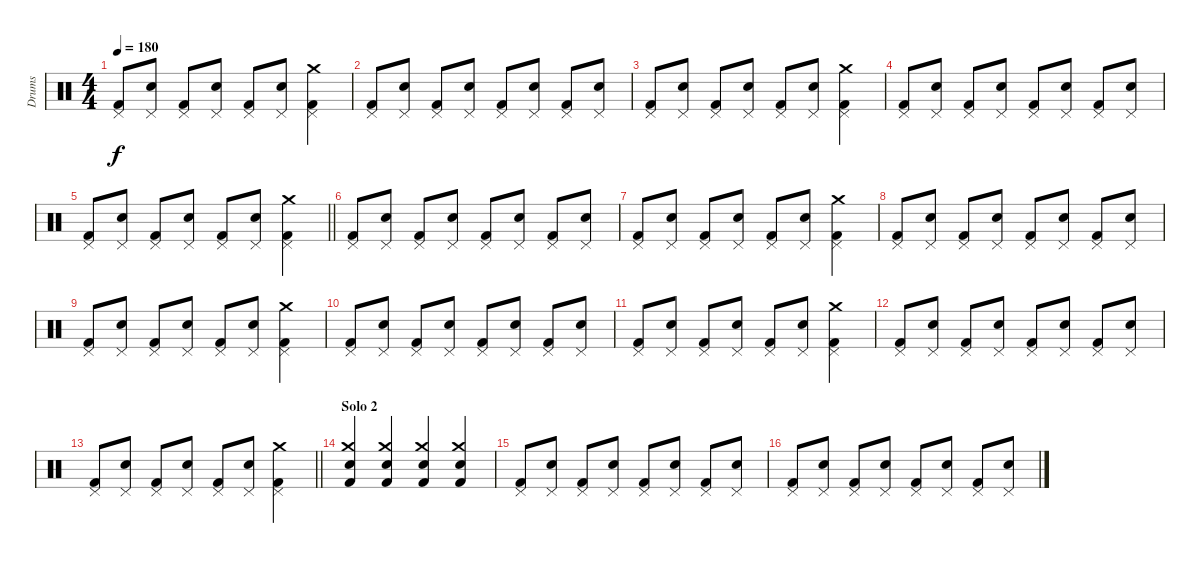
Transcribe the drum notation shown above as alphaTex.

\track ("Drums" "Drums") {instrument percussion}
\staff {score}
\articulation defaults
\ts (4 4)
\tempo 180
\clef neutral
\ks c
("Kick (hit) 2" "Pedal Hi-Hat (hit)").8{dy f} ("Snare (hit) 2" "Pedal Hi-Hat (hit)").8 ("Kick (hit) 2" "Pedal Hi-Hat (hit)").8 ("Snare (hit) 2" "Pedal Hi-Hat (hit)").8 ("Kick (hit) 2" "Pedal Hi-Hat (hit)").8 ("Snare (hit) 2" "Pedal Hi-Hat (hit)").8 ("Kick (hit) 2" "Pedal Hi-Hat (hit)" "Crash medium (hit)").4 |
("Kick (hit) 2" "Pedal Hi-Hat (hit)").8 ("Snare (hit) 2" "Pedal Hi-Hat (hit)").8 ("Kick (hit) 2" "Pedal Hi-Hat (hit)").8 ("Snare (hit) 2" "Pedal Hi-Hat (hit)").8 ("Kick (hit) 2" "Pedal Hi-Hat (hit)").8 ("Snare (hit) 2" "Pedal Hi-Hat (hit)").8 ("Kick (hit) 2" "Pedal Hi-Hat (hit)").8 ("Snare (hit) 2" "Pedal Hi-Hat (hit)").8 |
("Kick (hit) 2" "Pedal Hi-Hat (hit)").8 ("Snare (hit) 2" "Pedal Hi-Hat (hit)").8 ("Kick (hit) 2" "Pedal Hi-Hat (hit)").8 ("Snare (hit) 2" "Pedal Hi-Hat (hit)").8 ("Kick (hit) 2" "Pedal Hi-Hat (hit)").8 ("Snare (hit) 2" "Pedal Hi-Hat (hit)").8 ("Kick (hit) 2" "Pedal Hi-Hat (hit)" "Crash medium (hit)").4 |
("Kick (hit) 2" "Pedal Hi-Hat (hit)").8 ("Snare (hit) 2" "Pedal Hi-Hat (hit)").8 ("Kick (hit) 2" "Pedal Hi-Hat (hit)").8 ("Snare (hit) 2" "Pedal Hi-Hat (hit)").8 ("Kick (hit) 2" "Pedal Hi-Hat (hit)").8 ("Snare (hit) 2" "Pedal Hi-Hat (hit)").8 ("Kick (hit) 2" "Pedal Hi-Hat (hit)").8 ("Snare (hit) 2" "Pedal Hi-Hat (hit)").8 |
\barLineRight lightlight
("Kick (hit) 2" "Pedal Hi-Hat (hit)").8 ("Snare (hit) 2" "Pedal Hi-Hat (hit)").8 ("Kick (hit) 2" "Pedal Hi-Hat (hit)").8 ("Snare (hit) 2" "Pedal Hi-Hat (hit)").8 ("Kick (hit) 2" "Pedal Hi-Hat (hit)").8 ("Snare (hit) 2" "Pedal Hi-Hat (hit)").8 ("Kick (hit) 2" "Pedal Hi-Hat (hit)" "Crash medium (hit)").4 |
("Kick (hit) 2" "Pedal Hi-Hat (hit)").8 ("Snare (hit) 2" "Pedal Hi-Hat (hit)").8 ("Kick (hit) 2" "Pedal Hi-Hat (hit)").8 ("Snare (hit) 2" "Pedal Hi-Hat (hit)").8 ("Kick (hit) 2" "Pedal Hi-Hat (hit)").8 ("Snare (hit) 2" "Pedal Hi-Hat (hit)").8 ("Kick (hit) 2" "Pedal Hi-Hat (hit)").8 ("Snare (hit) 2" "Pedal Hi-Hat (hit)").8 |
("Kick (hit) 2" "Pedal Hi-Hat (hit)").8 ("Snare (hit) 2" "Pedal Hi-Hat (hit)").8 ("Kick (hit) 2" "Pedal Hi-Hat (hit)").8 ("Snare (hit) 2" "Pedal Hi-Hat (hit)").8 ("Kick (hit) 2" "Pedal Hi-Hat (hit)").8 ("Snare (hit) 2" "Pedal Hi-Hat (hit)").8 ("Kick (hit) 2" "Pedal Hi-Hat (hit)" "Crash medium (hit)").4 |
("Kick (hit) 2" "Pedal Hi-Hat (hit)").8 ("Snare (hit) 2" "Pedal Hi-Hat (hit)").8 ("Kick (hit) 2" "Pedal Hi-Hat (hit)").8 ("Snare (hit) 2" "Pedal Hi-Hat (hit)").8 ("Kick (hit) 2" "Pedal Hi-Hat (hit)").8 ("Snare (hit) 2" "Pedal Hi-Hat (hit)").8 ("Kick (hit) 2" "Pedal Hi-Hat (hit)").8 ("Snare (hit) 2" "Pedal Hi-Hat (hit)").8 |
("Kick (hit) 2" "Pedal Hi-Hat (hit)").8 ("Snare (hit) 2" "Pedal Hi-Hat (hit)").8 ("Kick (hit) 2" "Pedal Hi-Hat (hit)").8 ("Snare (hit) 2" "Pedal Hi-Hat (hit)").8 ("Kick (hit) 2" "Pedal Hi-Hat (hit)").8 ("Snare (hit) 2" "Pedal Hi-Hat (hit)").8 ("Kick (hit) 2" "Pedal Hi-Hat (hit)" "Crash medium (hit)").4 |
("Kick (hit) 2" "Pedal Hi-Hat (hit)").8 ("Snare (hit) 2" "Pedal Hi-Hat (hit)").8 ("Kick (hit) 2" "Pedal Hi-Hat (hit)").8 ("Snare (hit) 2" "Pedal Hi-Hat (hit)").8 ("Kick (hit) 2" "Pedal Hi-Hat (hit)").8 ("Snare (hit) 2" "Pedal Hi-Hat (hit)").8 ("Kick (hit) 2" "Pedal Hi-Hat (hit)").8 ("Snare (hit) 2" "Pedal Hi-Hat (hit)").8 |
("Kick (hit) 2" "Pedal Hi-Hat (hit)").8 ("Snare (hit) 2" "Pedal Hi-Hat (hit)").8 ("Kick (hit) 2" "Pedal Hi-Hat (hit)").8 ("Snare (hit) 2" "Pedal Hi-Hat (hit)").8 ("Kick (hit) 2" "Pedal Hi-Hat (hit)").8 ("Snare (hit) 2" "Pedal Hi-Hat (hit)").8 ("Kick (hit) 2" "Pedal Hi-Hat (hit)" "Crash medium (hit)").4 |
("Kick (hit) 2" "Pedal Hi-Hat (hit)").8 ("Snare (hit) 2" "Pedal Hi-Hat (hit)").8 ("Kick (hit) 2" "Pedal Hi-Hat (hit)").8 ("Snare (hit) 2" "Pedal Hi-Hat (hit)").8 ("Kick (hit) 2" "Pedal Hi-Hat (hit)").8 ("Snare (hit) 2" "Pedal Hi-Hat (hit)").8 ("Kick (hit) 2" "Pedal Hi-Hat (hit)").8 ("Snare (hit) 2" "Pedal Hi-Hat (hit)").8 |
\barLineRight lightlight
("Kick (hit) 2" "Pedal Hi-Hat (hit)").8 ("Snare (hit) 2" "Pedal Hi-Hat (hit)").8 ("Kick (hit) 2" "Pedal Hi-Hat (hit)").8 ("Snare (hit) 2" "Pedal Hi-Hat (hit)").8 ("Kick (hit) 2" "Pedal Hi-Hat (hit)").8 ("Snare (hit) 2" "Pedal Hi-Hat (hit)").8 ("Kick (hit) 2" "Pedal Hi-Hat (hit)" "Crash medium (hit)").4 |
\section ("" "Solo 2")
("Crash medium (hit)" "Electric Snare (hit)" "Kick (hit) 2").4 ("Crash medium (hit)" "Electric Snare (hit)" "Kick (hit) 2").4 ("Crash medium (hit)" "Electric Snare (hit)" "Kick (hit) 2").4 ("Crash medium (hit)" "Electric Snare (hit)" "Kick (hit) 2").4 |
("Kick (hit) 2" "Pedal Hi-Hat (hit)").8 ("Snare (hit) 2" "Pedal Hi-Hat (hit)").8 ("Kick (hit) 2" "Pedal Hi-Hat (hit)").8 ("Snare (hit) 2" "Pedal Hi-Hat (hit)").8 ("Kick (hit) 2" "Pedal Hi-Hat (hit)").8 ("Snare (hit) 2" "Pedal Hi-Hat (hit)").8 ("Kick (hit) 2" "Pedal Hi-Hat (hit)").8 ("Snare (hit) 2" "Pedal Hi-Hat (hit)").8 |
("Kick (hit) 2" "Pedal Hi-Hat (hit)").8 ("Snare (hit) 2" "Pedal Hi-Hat (hit)").8 ("Kick (hit) 2" "Pedal Hi-Hat (hit)").8 ("Snare (hit) 2" "Pedal Hi-Hat (hit)").8 ("Kick (hit) 2" "Pedal Hi-Hat (hit)").8 ("Snare (hit) 2" "Pedal Hi-Hat (hit)").8 ("Kick (hit) 2" "Pedal Hi-Hat (hit)").8 ("Snare (hit) 2" "Pedal Hi-Hat (hit)").8
